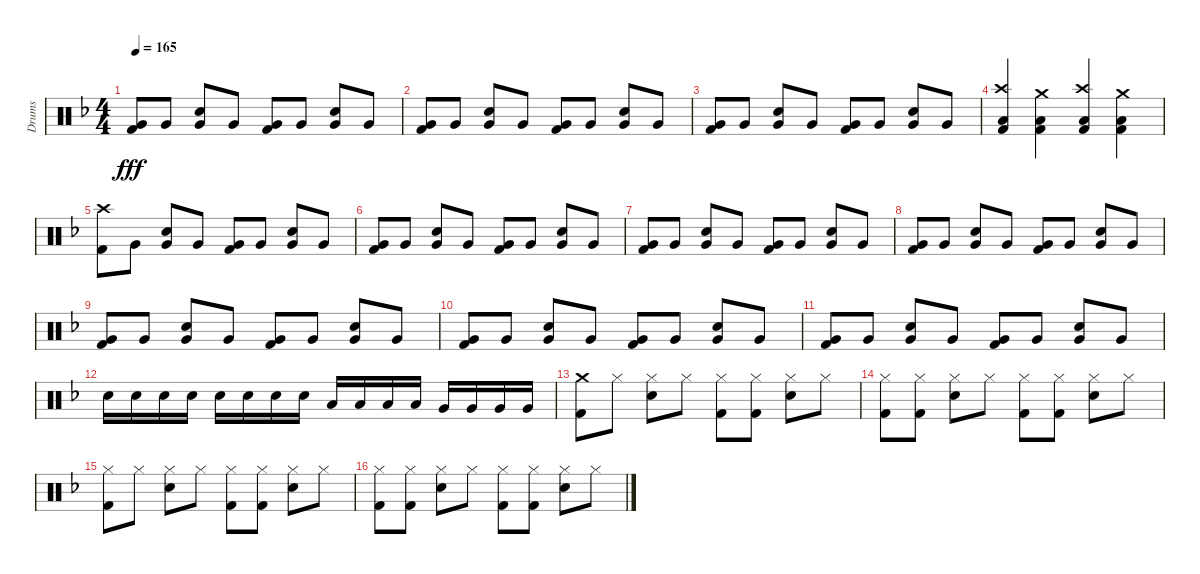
\track ("Drums" "Drums") {instrument percussion}
\staff {score}
\articulation defaults
\ts (4 4)
\tempo 165
\clef neutral
\ks f
("Very Low Tom (hit)" "Kick (hit) 2").8{dy fff} "Very Low Tom (hit)".8 ("Very Low Tom (hit)" "Electric Snare (hit)").8 "Very Low Tom (hit)".8 ("Very Low Tom (hit)" "Kick (hit) 2").8 "Very Low Tom (hit)".8 ("Very Low Tom (hit)" "Electric Snare (hit)").8 "Very Low Tom (hit)".8 |
("Very Low Tom (hit)" "Kick (hit) 2").8 "Very Low Tom (hit)".8 ("Very Low Tom (hit)" "Electric Snare (hit)").8 "Very Low Tom (hit)".8 ("Very Low Tom (hit)" "Kick (hit) 2").8 "Very Low Tom (hit)".8 ("Very Low Tom (hit)" "Electric Snare (hit)").8 "Very Low Tom (hit)".8 |
("Very Low Tom (hit)" "Kick (hit) 2").8 "Very Low Tom (hit)".8 ("Very Low Tom (hit)" "Electric Snare (hit)").8 "Very Low Tom (hit)".8 ("Very Low Tom (hit)" "Kick (hit) 2").8 "Very Low Tom (hit)".8 ("Very Low Tom (hit)" "Electric Snare (hit)").8 "Very Low Tom (hit)".8 |
("Crash high (hit)" "Low Tom (hit)" "Kick (hit) 2").4 ("Crash medium (hit)" "Low Tom (hit)" "Kick (hit) 2").4 ("Crash high (hit)" "Low Tom (hit)" "Kick (hit) 2").4 ("Crash medium (hit)" "Low Tom (hit)" "Kick (hit) 2").4 |
("Crash high (hit)" "Kick (hit) 2").8 "Very Low Tom (hit)".8 ("Very Low Tom (hit)" "Electric Snare (hit)").8 "Very Low Tom (hit)".8 ("Very Low Tom (hit)" "Kick (hit) 2").8 "Very Low Tom (hit)".8 ("Very Low Tom (hit)" "Electric Snare (hit)").8 "Very Low Tom (hit)".8 |
("Very Low Tom (hit)" "Kick (hit) 2").8 "Very Low Tom (hit)".8 ("Very Low Tom (hit)" "Electric Snare (hit)").8 "Very Low Tom (hit)".8 ("Very Low Tom (hit)" "Kick (hit) 2").8 "Very Low Tom (hit)".8 ("Very Low Tom (hit)" "Electric Snare (hit)").8 "Very Low Tom (hit)".8 |
("Very Low Tom (hit)" "Kick (hit) 2").8 "Very Low Tom (hit)".8 ("Very Low Tom (hit)" "Electric Snare (hit)").8 "Very Low Tom (hit)".8 ("Very Low Tom (hit)" "Kick (hit) 2").8 "Very Low Tom (hit)".8 ("Very Low Tom (hit)" "Electric Snare (hit)").8 "Very Low Tom (hit)".8 |
("Very Low Tom (hit)" "Kick (hit) 2").8 "Very Low Tom (hit)".8 ("Very Low Tom (hit)" "Electric Snare (hit)").8 "Very Low Tom (hit)".8 ("Very Low Tom (hit)" "Kick (hit) 2").8 "Very Low Tom (hit)".8 ("Very Low Tom (hit)" "Electric Snare (hit)").8 "Very Low Tom (hit)".8 |
("Very Low Tom (hit)" "Kick (hit) 2").8 "Very Low Tom (hit)".8 ("Very Low Tom (hit)" "Electric Snare (hit)").8 "Very Low Tom (hit)".8 ("Very Low Tom (hit)" "Kick (hit) 2").8 "Very Low Tom (hit)".8 ("Very Low Tom (hit)" "Electric Snare (hit)").8 "Very Low Tom (hit)".8 |
("Very Low Tom (hit)" "Kick (hit) 2").8 "Very Low Tom (hit)".8 ("Very Low Tom (hit)" "Electric Snare (hit)").8 "Very Low Tom (hit)".8 ("Very Low Tom (hit)" "Kick (hit) 2").8 "Very Low Tom (hit)".8 ("Very Low Tom (hit)" "Electric Snare (hit)").8 "Very Low Tom (hit)".8 |
("Very Low Tom (hit)" "Kick (hit) 2").8 "Very Low Tom (hit)".8 ("Very Low Tom (hit)" "Electric Snare (hit)").8 "Very Low Tom (hit)".8 ("Very Low Tom (hit)" "Kick (hit) 2").8 "Very Low Tom (hit)".8 ("Very Low Tom (hit)" "Electric Snare (hit)").8 "Very Low Tom (hit)".8 |
"Electric Snare (hit)".16 "Electric Snare (hit)".16 "Electric Snare (hit)".16 "Electric Snare (hit)".16 "Electric Snare (hit)".16 "Electric Snare (hit)".16 "Electric Snare (hit)".16 "Electric Snare (hit)".16 "Low Tom (hit)".16 "Low Tom (hit)".16 "Low Tom (hit)".16 "Low Tom (hit)".16 "Very Low Tom (hit)".16 "Very Low Tom (hit)".16 "Very Low Tom (hit)".16 "Very Low Tom (hit)".16 |
("Crash medium (hit)" "Kick (hit) 2").8 "Hi-Hat (closed)".8 ("Hi-Hat (closed)" "Electric Snare (hit)").8 "Hi-Hat (closed)".8 ("Hi-Hat (closed)" "Kick (hit) 2").8 ("Hi-Hat (closed)" "Kick (hit) 2").8 ("Hi-Hat (closed)" "Electric Snare (hit)").8 "Hi-Hat (closed)".8 |
("Hi-Hat (closed)" "Kick (hit) 2").8 ("Hi-Hat (closed)" "Kick (hit) 2").8 ("Hi-Hat (closed)" "Electric Snare (hit)").8 "Hi-Hat (closed)".8 ("Hi-Hat (closed)" "Kick (hit) 2").8 ("Hi-Hat (closed)" "Kick (hit) 2").8 ("Hi-Hat (closed)" "Electric Snare (hit)").8 "Hi-Hat (closed)".8 |
("Hi-Hat (closed)" "Kick (hit) 2").8 "Hi-Hat (closed)".8 ("Hi-Hat (closed)" "Electric Snare (hit)").8 "Hi-Hat (closed)".8 ("Hi-Hat (closed)" "Kick (hit) 2").8 ("Hi-Hat (closed)" "Kick (hit) 2").8 ("Hi-Hat (closed)" "Electric Snare (hit)").8 "Hi-Hat (closed)".8 |
("Hi-Hat (closed)" "Kick (hit) 2").8 ("Hi-Hat (closed)" "Kick (hit) 2").8 ("Hi-Hat (closed)" "Electric Snare (hit)").8 "Hi-Hat (closed)".8 ("Hi-Hat (closed)" "Kick (hit) 2").8 ("Hi-Hat (closed)" "Kick (hit) 2").8 ("Hi-Hat (closed)" "Electric Snare (hit)").8 "Hi-Hat (closed)".8
